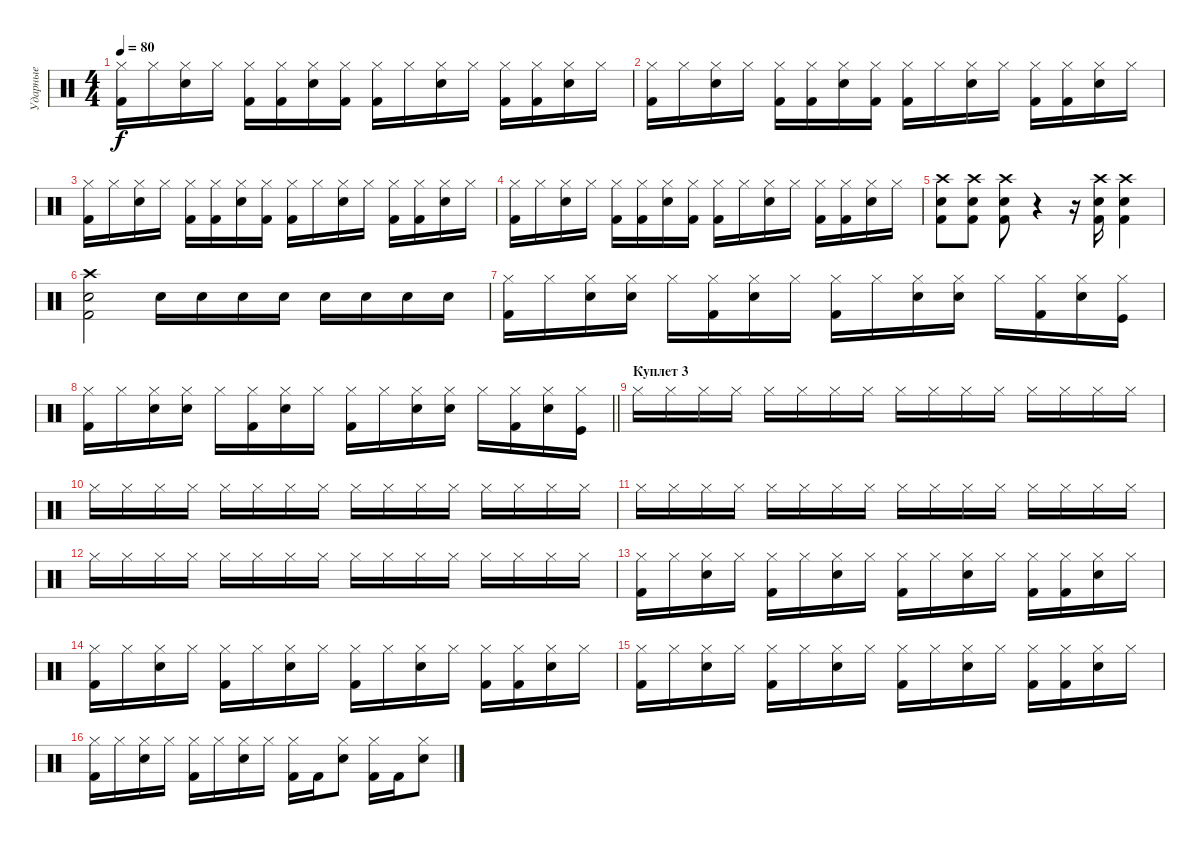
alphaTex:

\track ("Ударные" "Ударные") {instrument percussion}
\staff {score}
\articulation defaults
\ts (4 4)
\tempo 80
\clef neutral
\ks c
("Hi-Hat (closed)" "Kick (hit) 2").16{dy f} "Hi-Hat (closed)".16 ("Hi-Hat (closed)" "Electric Snare (hit)").16 "Hi-Hat (closed)".16 ("Hi-Hat (closed)" "Kick (hit) 2").16 ("Hi-Hat (closed)" "Kick (hit) 2").16 ("Hi-Hat (closed)" "Electric Snare (hit)").16 ("Hi-Hat (closed)" "Kick (hit) 2").16 ("Hi-Hat (closed)" "Kick (hit) 2").16 "Hi-Hat (closed)".16 ("Hi-Hat (closed)" "Electric Snare (hit)").16 "Hi-Hat (closed)".16 ("Hi-Hat (closed)" "Kick (hit) 2").16 ("Hi-Hat (closed)" "Kick (hit) 2").16 ("Hi-Hat (closed)" "Electric Snare (hit)").16 "Hi-Hat (closed)".16 |
("Hi-Hat (closed)" "Kick (hit) 2").16 "Hi-Hat (closed)".16 ("Hi-Hat (closed)" "Electric Snare (hit)").16 "Hi-Hat (closed)".16 ("Hi-Hat (closed)" "Kick (hit) 2").16 ("Hi-Hat (closed)" "Kick (hit) 2").16 ("Hi-Hat (closed)" "Electric Snare (hit)").16 ("Hi-Hat (closed)" "Kick (hit) 2").16 ("Hi-Hat (closed)" "Kick (hit) 2").16 "Hi-Hat (closed)".16 ("Hi-Hat (closed)" "Electric Snare (hit)").16 "Hi-Hat (closed)".16 ("Hi-Hat (closed)" "Kick (hit) 2").16 ("Hi-Hat (closed)" "Kick (hit) 2").16 ("Hi-Hat (closed)" "Electric Snare (hit)").16 "Hi-Hat (closed)".16 |
("Hi-Hat (closed)" "Kick (hit) 2").16 "Hi-Hat (closed)".16 ("Hi-Hat (closed)" "Electric Snare (hit)").16 "Hi-Hat (closed)".16 ("Hi-Hat (closed)" "Kick (hit) 2").16 ("Hi-Hat (closed)" "Kick (hit) 2").16 ("Hi-Hat (closed)" "Electric Snare (hit)").16 ("Hi-Hat (closed)" "Kick (hit) 2").16 ("Hi-Hat (closed)" "Kick (hit) 2").16 "Hi-Hat (closed)".16 ("Hi-Hat (closed)" "Electric Snare (hit)").16 "Hi-Hat (closed)".16 ("Hi-Hat (closed)" "Kick (hit) 2").16 ("Hi-Hat (closed)" "Kick (hit) 2").16 ("Hi-Hat (closed)" "Electric Snare (hit)").16 "Hi-Hat (closed)".16 |
("Hi-Hat (closed)" "Kick (hit) 2").16 "Hi-Hat (closed)".16 ("Hi-Hat (closed)" "Electric Snare (hit)").16 "Hi-Hat (closed)".16 ("Hi-Hat (closed)" "Kick (hit) 2").16 ("Hi-Hat (closed)" "Kick (hit) 2").16 ("Hi-Hat (closed)" "Electric Snare (hit)").16 ("Hi-Hat (closed)" "Kick (hit) 2").16 ("Hi-Hat (closed)" "Kick (hit) 2").16 "Hi-Hat (closed)".16 ("Hi-Hat (closed)" "Electric Snare (hit)").16 "Hi-Hat (closed)".16 ("Hi-Hat (closed)" "Kick (hit) 2").16 ("Hi-Hat (closed)" "Kick (hit) 2").16 ("Hi-Hat (closed)" "Electric Snare (hit)").16 "Hi-Hat (closed)".16 |
("Kick (hit) 2" "Snare (hit) 2" "Crash high (hit)").8 ("Kick (hit) 2" "Snare (hit) 2" "Crash high (hit)").8 ("Kick (hit) 2" "Snare (hit) 2" "Crash high (hit)").8 r.4 r.16 ("Kick (hit) 2" "Snare (hit) 2" "Crash high (hit)").16 ("Kick (hit) 2" "Snare (hit) 2" "Crash high (hit)").4 |
("Kick (hit) 2" "Snare (hit) 2" "Crash high (hit)").2 "Snare (hit) 2".16 "Snare (hit) 2".16 "Snare (hit) 2".16 "Snare (hit) 2".16 "Snare (hit) 2".16 "Snare (hit) 2".16 "Snare (hit) 2".16 "Snare (hit) 2".16 |
("Hi-Hat (closed)" "Kick (hit) 2").16 "Hi-Hat (closed)".16 ("Hi-Hat (closed)" "Electric Snare (hit)").16 ("Hi-Hat (closed)" "Electric Snare (hit)").16 "Hi-Hat (closed)".16 ("Hi-Hat (closed)" "Kick (hit) 2").16 ("Hi-Hat (closed)" "Electric Snare (hit)").16 "Hi-Hat (closed)".16 ("Hi-Hat (closed)" "Kick (hit) 2").16 "Hi-Hat (closed)".16 ("Hi-Hat (closed)" "Electric Snare (hit)").16 ("Hi-Hat (closed)" "Electric Snare (hit)").16 "Hi-Hat (closed)".16 ("Hi-Hat (closed)" "Kick (hit) 2").16 ("Hi-Hat (closed)" "Electric Snare (hit)").16 ("Hi-Hat (closed)" "Kick (hit)").16 |
\barLineRight lightlight
("Hi-Hat (closed)" "Kick (hit) 2").16 "Hi-Hat (closed)".16 ("Hi-Hat (closed)" "Electric Snare (hit)").16 ("Hi-Hat (closed)" "Electric Snare (hit)").16 "Hi-Hat (closed)".16 ("Hi-Hat (closed)" "Kick (hit) 2").16 ("Hi-Hat (closed)" "Electric Snare (hit)").16 "Hi-Hat (closed)".16 ("Hi-Hat (closed)" "Kick (hit) 2").16 "Hi-Hat (closed)".16 ("Hi-Hat (closed)" "Electric Snare (hit)").16 ("Hi-Hat (closed)" "Electric Snare (hit)").16 "Hi-Hat (closed)".16 ("Hi-Hat (closed)" "Kick (hit) 2").16 ("Hi-Hat (closed)" "Electric Snare (hit)").16 ("Hi-Hat (closed)" "Kick (hit)").16 |
\section ("" "Куплет 3")
"Hi-Hat (closed)".16 "Hi-Hat (closed)".16 "Hi-Hat (closed)".16 "Hi-Hat (closed)".16 "Hi-Hat (closed)".16 "Hi-Hat (closed)".16 "Hi-Hat (closed)".16 "Hi-Hat (closed)".16 "Hi-Hat (closed)".16 "Hi-Hat (closed)".16 "Hi-Hat (closed)".16 "Hi-Hat (closed)".16 "Hi-Hat (closed)".16 "Hi-Hat (closed)".16 "Hi-Hat (closed)".16 "Hi-Hat (closed)".16 |
"Hi-Hat (closed)".16 "Hi-Hat (closed)".16 "Hi-Hat (closed)".16 "Hi-Hat (closed)".16 "Hi-Hat (closed)".16 "Hi-Hat (closed)".16 "Hi-Hat (closed)".16 "Hi-Hat (closed)".16 "Hi-Hat (closed)".16 "Hi-Hat (closed)".16 "Hi-Hat (closed)".16 "Hi-Hat (closed)".16 "Hi-Hat (closed)".16 "Hi-Hat (closed)".16 "Hi-Hat (closed)".16 "Hi-Hat (closed)".16 |
"Hi-Hat (closed)".16 "Hi-Hat (closed)".16 "Hi-Hat (closed)".16 "Hi-Hat (closed)".16 "Hi-Hat (closed)".16 "Hi-Hat (closed)".16 "Hi-Hat (closed)".16 "Hi-Hat (closed)".16 "Hi-Hat (closed)".16 "Hi-Hat (closed)".16 "Hi-Hat (closed)".16 "Hi-Hat (closed)".16 "Hi-Hat (closed)".16 "Hi-Hat (closed)".16 "Hi-Hat (closed)".16 "Hi-Hat (closed)".16 |
"Hi-Hat (closed)".16 "Hi-Hat (closed)".16 "Hi-Hat (closed)".16 "Hi-Hat (closed)".16 "Hi-Hat (closed)".16 "Hi-Hat (closed)".16 "Hi-Hat (closed)".16 "Hi-Hat (closed)".16 "Hi-Hat (closed)".16 "Hi-Hat (closed)".16 "Hi-Hat (closed)".16 "Hi-Hat (closed)".16 "Hi-Hat (closed)".16 "Hi-Hat (closed)".16 "Hi-Hat (closed)".16 "Hi-Hat (closed)".16 |
("Hi-Hat (closed)" "Kick (hit) 2").16 "Hi-Hat (closed)".16 ("Hi-Hat (closed)" "Electric Snare (hit)").16 "Hi-Hat (closed)".16 ("Hi-Hat (closed)" "Kick (hit) 2").16 "Hi-Hat (closed)".16 ("Hi-Hat (closed)" "Electric Snare (hit)").16 "Hi-Hat (closed)".16 ("Hi-Hat (closed)" "Kick (hit) 2").16 "Hi-Hat (closed)".16 ("Hi-Hat (closed)" "Electric Snare (hit)").16 "Hi-Hat (closed)".16 ("Hi-Hat (closed)" "Kick (hit) 2").16 ("Hi-Hat (closed)" "Kick (hit) 2").16 ("Hi-Hat (closed)" "Electric Snare (hit)").16 "Hi-Hat (closed)".16 |
("Hi-Hat (closed)" "Kick (hit) 2").16 "Hi-Hat (closed)".16 ("Hi-Hat (closed)" "Electric Snare (hit)").16 "Hi-Hat (closed)".16 ("Hi-Hat (closed)" "Kick (hit) 2").16 "Hi-Hat (closed)".16 ("Hi-Hat (closed)" "Electric Snare (hit)").16 "Hi-Hat (closed)".16 ("Hi-Hat (closed)" "Kick (hit) 2").16 "Hi-Hat (closed)".16 ("Hi-Hat (closed)" "Electric Snare (hit)").16 "Hi-Hat (closed)".16 ("Hi-Hat (closed)" "Kick (hit) 2").16 ("Hi-Hat (closed)" "Kick (hit) 2").16 ("Hi-Hat (closed)" "Electric Snare (hit)").16 "Hi-Hat (closed)".16 |
("Hi-Hat (closed)" "Kick (hit) 2").16 "Hi-Hat (closed)".16 ("Hi-Hat (closed)" "Electric Snare (hit)").16 "Hi-Hat (closed)".16 ("Hi-Hat (closed)" "Kick (hit) 2").16 "Hi-Hat (closed)".16 ("Hi-Hat (closed)" "Electric Snare (hit)").16 "Hi-Hat (closed)".16 ("Hi-Hat (closed)" "Kick (hit) 2").16 "Hi-Hat (closed)".16 ("Hi-Hat (closed)" "Electric Snare (hit)").16 "Hi-Hat (closed)".16 ("Hi-Hat (closed)" "Kick (hit) 2").16 ("Hi-Hat (closed)" "Kick (hit) 2").16 ("Hi-Hat (closed)" "Electric Snare (hit)").16 "Hi-Hat (closed)".16 |
("Hi-Hat (closed)" "Kick (hit) 2").16 "Hi-Hat (closed)".16 ("Hi-Hat (closed)" "Electric Snare (hit)").16 "Hi-Hat (closed)".16 ("Hi-Hat (closed)" "Kick (hit) 2").16 "Hi-Hat (closed)".16 ("Hi-Hat (closed)" "Electric Snare (hit)").16 "Hi-Hat (closed)".16 ("Hi-Hat (closed)" "Kick (hit) 2").16 "Kick (hit) 2".16 ("Electric Snare (hit)" "Hi-Hat (closed)").8 ("Hi-Hat (closed)" "Kick (hit) 2").16 "Kick (hit) 2".16 ("Electric Snare (hit)" "Hi-Hat (closed)").8
